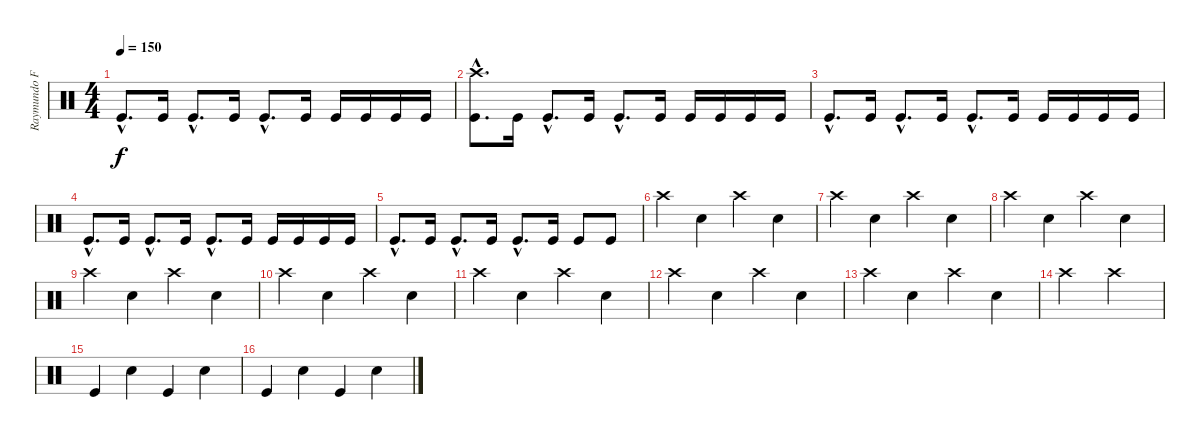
\track ("Raymundo Fajardo" "Raymundo F") {instrument percussion}
\staff {score}
\articulation defaults
\ts (4 4)
\tempo 150
\clef neutral
\ks c "Kick (hit)"{hac}.8{d dy f} "Kick (hit)".16 "Kick (hit)"{hac}.8{d} "Kick (hit)".16 "Kick (hit)"{hac}.8{d} "Kick (hit)".16 "Kick (hit)".16 "Kick (hit)".16 "Kick (hit)".16 "Kick (hit)".16
|
("Crash high (hit)"{hac} "Kick (hit)"{hac}).8{d} "Kick (hit)".16 "Kick (hit)"{hac}.8{d} "Kick (hit)".16 "Kick (hit)"{hac}.8{d} "Kick (hit)".16 "Kick (hit)".16 "Kick (hit)".16 "Kick (hit)".16 "Kick (hit)".16 |
"Kick (hit)"{hac}.8{d} "Kick (hit)".16 "Kick (hit)"{hac}.8{d} "Kick (hit)".16 "Kick (hit)"{hac}.8{d} "Kick (hit)".16 "Kick (hit)".16 "Kick (hit)".16 "Kick (hit)".16 "Kick (hit)".16 |
"Kick (hit)"{hac}.8{d} "Kick (hit)".16 "Kick (hit)"{hac}.8{d} "Kick (hit)".16 "Kick (hit)"{hac}.8{d} "Kick (hit)".16 "Kick (hit)".16 "Kick (hit)".16 "Kick (hit)".16 "Kick (hit)".16 |
"Kick (hit)"{hac}.8{d} "Kick (hit)".16 "Kick (hit)"{hac}.8{d} "Kick (hit)".16 "Kick (hit)"{hac}.8{d} "Kick (hit)".16 "Kick (hit)".8 "Kick (hit)".8 |
"Crash high (hit)".4 "Electric Snare (hit)".4 "Crash high (hit)".4 "Electric Snare (hit)".4 |
"Crash high (hit)".4 "Electric Snare (hit)".4 "Crash high (hit)".4 "Electric Snare (hit)".4 |
"Crash high (hit)".4 "Electric Snare (hit)".4 "Crash high (hit)".4 "Electric Snare (hit)".4 |
"Crash high (hit)".4 "Electric Snare (hit)".4 "Crash high (hit)".4 "Electric Snare (hit)".4 |
"Crash high (hit)".4 "Electric Snare (hit)".4 "Crash high (hit)".4 "Electric Snare (hit)".4 |
"Crash high (hit)".4 "Electric Snare (hit)".4 "Crash high (hit)".4 "Electric Snare (hit)".4 |
"Crash high (hit)".4 "Electric Snare (hit)".4 "Crash high (hit)".4 "Electric Snare (hit)".4 |
"Crash high (hit)".4 "Electric Snare (hit)".4 "Crash high (hit)".4 "Electric Snare (hit)".4 |
"Crash high (hit)".2 "Crash high (hit)".2 |
"Kick (hit)".4 "Electric Snare (hit)".4 "Kick (hit)".4 "Electric Snare (hit)".4 |
"Kick (hit)".4 "Electric Snare (hit)".4 "Kick (hit)".4 "Electric Snare (hit)".4
